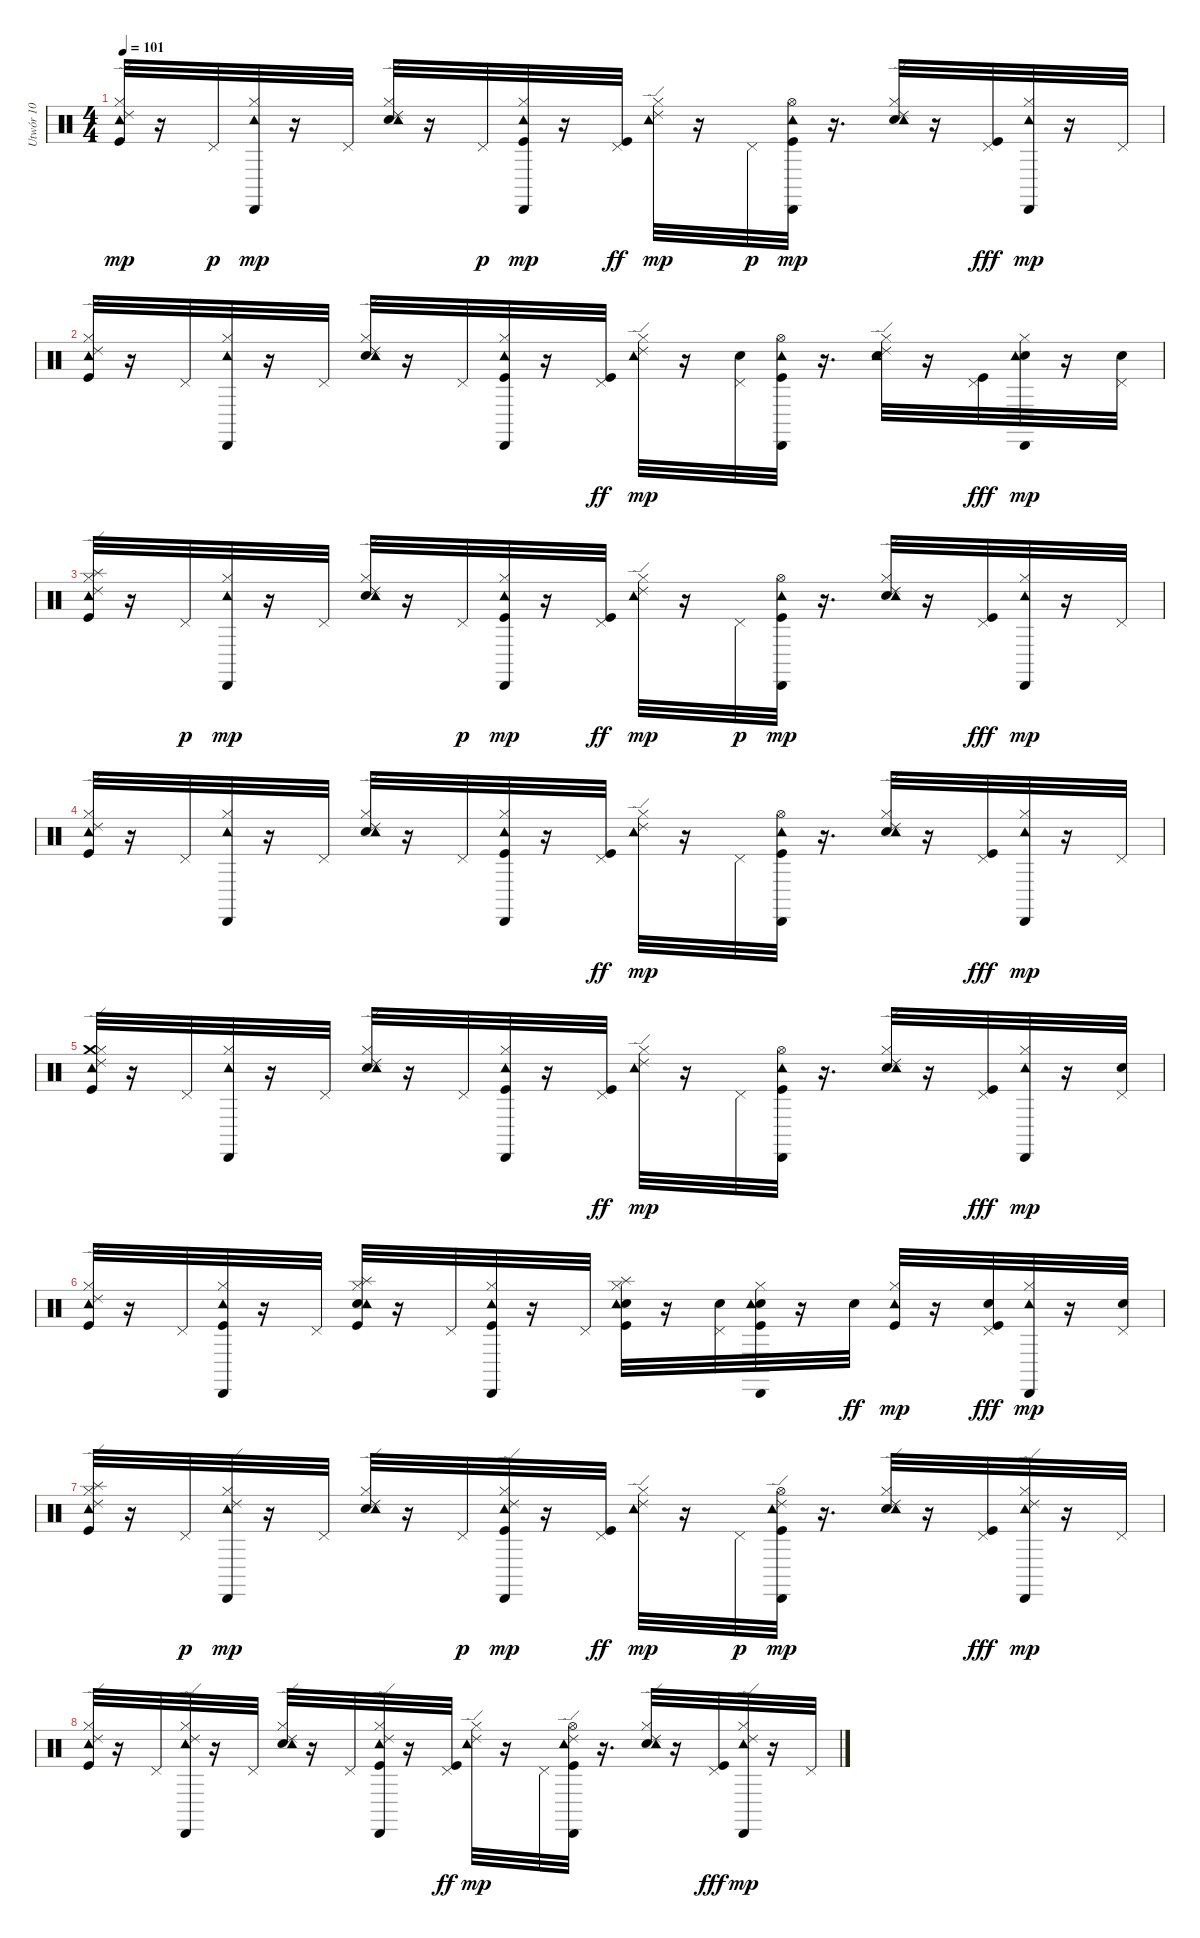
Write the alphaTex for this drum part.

\track ("Utwór 10" "Utwór 10") {instrument percussion}
\staff {score}
\articulation defaults
\ts (4 4)
\tempo 101
\clef neutral
\ks c
("Ride (edge) 2" "Hi-Hat (closed)" "Kick (hit)" "Tambourine (hit)").32{dy mp} r.16 "Pedal Hi-Hat (hit)".32{dy p} ("Cabasa (hit)" "Hi-Hat (closed)" "Tambourine (hit)").32{dy mp} r.16 "Pedal Hi-Hat (hit)".32 ("Ride (edge) 2" "Electric Snare (hit)" "Hi-Hat (closed)" "Tambourine (hit)").32 r.16 "Pedal Hi-Hat (hit)".32{dy p} ("Cabasa (hit)" "Hi-Hat (closed)" "Kick (hit)" "Tambourine (hit)").32{dy mp} r.16 ("Pedal Hi-Hat (hit)" "Kick (hit)").32{dy ff} ("Ride (edge) 2" "Hi-Hat (closed)" "Tambourine (hit)").32{dy mp} r.16 "Pedal Hi-Hat (hit)".32{dy p} ("Cabasa (hit)" "Hi-Hat (open)" "Kick (hit)" "Tambourine (hit)").32{dy mp} r.16{d} ("Ride (edge) 2" "Electric Snare (hit)" "Hi-Hat (closed)" "Tambourine (hit)").32 r.16 ("Pedal Hi-Hat (hit)" "Kick (hit)").32{dy fff} ("Cabasa (hit)" "Hi-Hat (closed)" "Tambourine (hit)").32{dy mp} r.16 "Pedal Hi-Hat (hit)".32 |
("Ride (edge) 2" "Hi-Hat (closed)" "Kick (hit)" "Tambourine (hit)").32 r.16 "Pedal Hi-Hat (hit)".32 ("Cabasa (hit)" "Hi-Hat (closed)" "Tambourine (hit)").32 r.16 "Pedal Hi-Hat (hit)".32 ("Ride (edge) 2" "Electric Snare (hit)" "Hi-Hat (closed)" "Tambourine (hit)").32 r.16 "Pedal Hi-Hat (hit)".32 ("Cabasa (hit)" "Hi-Hat (closed)" "Kick (hit)" "Tambourine (hit)").32 r.16 ("Pedal Hi-Hat (hit)" "Kick (hit)").32{dy ff} ("Ride (edge) 2" "Hi-Hat (closed)" "Tambourine (hit)").32{dy mp} r.16 ("Electric Snare (hit)" "Pedal Hi-Hat (hit)").32 ("Cabasa (hit)" "Hi-Hat (open)" "Kick (hit)" "Tambourine (hit)").32 r.16{d} ("Ride (edge) 2" "Electric Snare (hit)" "Hi-Hat (closed)" "Tambourine (hit)").32 r.16 ("Pedal Hi-Hat (hit)" "Kick (hit)").32{dy fff} ("Cabasa (hit)" "Electric Snare (hit)" "Hi-Hat (closed)" "Tambourine (hit)").32{dy mp} r.16 ("Electric Snare (hit)" "Pedal Hi-Hat (hit)").32 |
("Ride (edge) 2" "Splash (hit)" "Hi-Hat (closed)" "Kick (hit)" "Tambourine (hit)").32 r.16 "Pedal Hi-Hat (hit)".32{dy p} ("Cabasa (hit)" "Hi-Hat (closed)" "Tambourine (hit)").32{dy mp} r.16 "Pedal Hi-Hat (hit)".32 ("Ride (edge) 2" "Electric Snare (hit)" "Hi-Hat (closed)" "Tambourine (hit)").32 r.16 "Pedal Hi-Hat (hit)".32{dy p} ("Cabasa (hit)" "Hi-Hat (closed)" "Kick (hit)" "Tambourine (hit)").32{dy mp} r.16 ("Pedal Hi-Hat (hit)" "Kick (hit)").32{dy ff} ("Ride (edge) 2" "Hi-Hat (closed)" "Tambourine (hit)").32{dy mp} r.16 "Pedal Hi-Hat (hit)".32{dy p} ("Cabasa (hit)" "Hi-Hat (open)" "Kick (hit)" "Tambourine (hit)").32{dy mp} r.16{d} ("Ride (edge) 2" "Electric Snare (hit)" "Hi-Hat (closed)" "Tambourine (hit)").32 r.16 ("Pedal Hi-Hat (hit)" "Kick (hit)").32{dy fff} ("Cabasa (hit)" "Hi-Hat (closed)" "Tambourine (hit)").32{dy mp} r.16 "Pedal Hi-Hat (hit)".32 |
("Ride (edge) 2" "Hi-Hat (closed)" "Kick (hit)" "Tambourine (hit)").32 r.16 "Pedal Hi-Hat (hit)".32 ("Cabasa (hit)" "Hi-Hat (closed)" "Tambourine (hit)").32 r.16 "Pedal Hi-Hat (hit)".32 ("Ride (edge) 2" "Electric Snare (hit)" "Hi-Hat (closed)" "Tambourine (hit)").32 r.16 "Pedal Hi-Hat (hit)".32 ("Cabasa (hit)" "Hi-Hat (closed)" "Kick (hit)" "Tambourine (hit)").32 r.16 ("Pedal Hi-Hat (hit)" "Kick (hit)").32{dy ff} ("Ride (edge) 2" "Hi-Hat (closed)" "Tambourine (hit)").32{dy mp} r.16 "Pedal Hi-Hat (hit)".32 ("Cabasa (hit)" "Hi-Hat (open)" "Kick (hit)" "Tambourine (hit)").32 r.16{d} ("Ride (edge) 2" "Electric Snare (hit)" "Hi-Hat (closed)" "Tambourine (hit)").32 r.16 ("Pedal Hi-Hat (hit)" "Kick (hit)").32{dy fff} ("Cabasa (hit)" "Hi-Hat (closed)" "Tambourine (hit)").32{dy mp} r.16 "Pedal Hi-Hat (hit)".32 |
("Ride (edge) 2" "Crash medium (hit)" "Hi-Hat (closed)" "Kick (hit)" "Tambourine (hit)").32 r.16 "Pedal Hi-Hat (hit)".32 ("Cabasa (hit)" "Hi-Hat (closed)" "Tambourine (hit)").32 r.16 "Pedal Hi-Hat (hit)".32 ("Ride (edge) 2" "Electric Snare (hit)" "Hi-Hat (closed)" "Tambourine (hit)").32 r.16 "Pedal Hi-Hat (hit)".32 ("Cabasa (hit)" "Hi-Hat (closed)" "Kick (hit)" "Tambourine (hit)").32 r.16 ("Pedal Hi-Hat (hit)" "Kick (hit)").32{dy ff} ("Ride (edge) 2" "Hi-Hat (closed)" "Tambourine (hit)").32{dy mp} r.16 "Pedal Hi-Hat (hit)".32 ("Cabasa (hit)" "Hi-Hat (open)" "Kick (hit)" "Tambourine (hit)").32 r.16{d} ("Ride (edge) 2" "Electric Snare (hit)" "Hi-Hat (closed)" "Tambourine (hit)").32 r.16 ("Pedal Hi-Hat (hit)" "Kick (hit)").32{dy fff} ("Cabasa (hit)" "Hi-Hat (closed)" "Tambourine (hit)").32{dy mp} r.16 ("Electric Snare (hit)" "Pedal Hi-Hat (hit)").32 |
("Ride (edge) 2" "Hi-Hat (closed)" "Kick (hit)" "Tambourine (hit)").32 r.16 "Pedal Hi-Hat (hit)".32 ("Cabasa (hit)" "Hi-Hat (closed)" "Kick (hit)" "Tambourine (hit)").32 r.16 "Pedal Hi-Hat (hit)".32 ("Splash (hit)" "Electric Snare (hit)" "Hi-Hat (closed)" "Kick (hit)" "Tambourine (hit)").32 r.16 "Pedal Hi-Hat (hit)".32 ("Cabasa (hit)" "Hi-Hat (closed)" "Kick (hit)" "Tambourine (hit)").32 r.16 "Pedal Hi-Hat (hit)".32 ("Splash (hit)" "Electric Snare (hit)" "Hi-Hat (closed)" "Kick (hit)" "Tambourine (hit)").32 r.16 ("Electric Snare (hit)" "Pedal Hi-Hat (hit)").32 ("Cabasa (hit)" "Electric Snare (hit)" "Hi-Hat (closed)" "Kick (hit)" "Tambourine (hit)").32 r.16 "Electric Snare (hit)".32{dy ff} ("Hi-Hat (closed)" "Kick (hit)" "Tambourine (hit)").32{dy mp} r.16 ("Electric Snare (hit)" "Pedal Hi-Hat (hit)" "Kick (hit)").32{dy fff} ("Cabasa (hit)" "Hi-Hat (closed)" "Tambourine (hit)").32{dy mp} r.16 ("Electric Snare (hit)" "Pedal Hi-Hat (hit)").32 |
("Ride (edge) 2" "Splash (hit)" "Hi-Hat (closed)" "Kick (hit)" "Tambourine (hit)").32 r.16 "Pedal Hi-Hat (hit)".32{dy p} ("Ride (edge) 2" "Cabasa (hit)" "Hi-Hat (closed)" "Tambourine (hit)").32{dy mp} r.16 "Pedal Hi-Hat (hit)".32 ("Ride (edge) 2" "Electric Snare (hit)" "Hi-Hat (closed)" "Tambourine (hit)").32 r.16 "Pedal Hi-Hat (hit)".32{dy p} ("Ride (edge) 2" "Cabasa (hit)" "Hi-Hat (closed)" "Kick (hit)" "Tambourine (hit)").32{dy mp} r.16 ("Pedal Hi-Hat (hit)" "Kick (hit)").32{dy ff} ("Ride (edge) 2" "Hi-Hat (closed)" "Tambourine (hit)").32{dy mp} r.16 "Pedal Hi-Hat (hit)".32{dy p} ("Ride (edge) 2" "Cabasa (hit)" "Hi-Hat (open)" "Kick (hit)" "Tambourine (hit)").32{dy mp} r.16{d} ("Ride (edge) 2" "Electric Snare (hit)" "Hi-Hat (closed)" "Tambourine (hit)").32 r.16 ("Pedal Hi-Hat (hit)" "Kick (hit)").32{dy fff} ("Ride (edge) 2" "Cabasa (hit)" "Hi-Hat (closed)" "Tambourine (hit)").32{dy mp} r.16 "Pedal Hi-Hat (hit)".32 |
("Ride (edge) 2" "Hi-Hat (closed)" "Kick (hit)" "Tambourine (hit)").32 r.16 "Pedal Hi-Hat (hit)".32 ("Ride (edge) 2" "Cabasa (hit)" "Hi-Hat (closed)" "Tambourine (hit)").32 r.16 "Pedal Hi-Hat (hit)".32 ("Ride (edge) 2" "Electric Snare (hit)" "Hi-Hat (closed)" "Tambourine (hit)").32 r.16 "Pedal Hi-Hat (hit)".32 ("Ride (edge) 2" "Cabasa (hit)" "Hi-Hat (closed)" "Kick (hit)" "Tambourine (hit)").32 r.16 ("Pedal Hi-Hat (hit)" "Kick (hit)").32{dy ff} ("Ride (edge) 2" "Hi-Hat (closed)" "Tambourine (hit)").32{dy mp} r.16 "Pedal Hi-Hat (hit)".32 ("Ride (edge) 2" "Cabasa (hit)" "Hi-Hat (open)" "Kick (hit)" "Tambourine (hit)").32 r.16{d} ("Ride (edge) 2" "Electric Snare (hit)" "Hi-Hat (closed)" "Tambourine (hit)").32 r.16 ("Pedal Hi-Hat (hit)" "Kick (hit)").32{dy fff} ("Ride (edge) 2" "Cabasa (hit)" "Hi-Hat (closed)" "Tambourine (hit)").32{dy mp} r.16 "Pedal Hi-Hat (hit)".32
